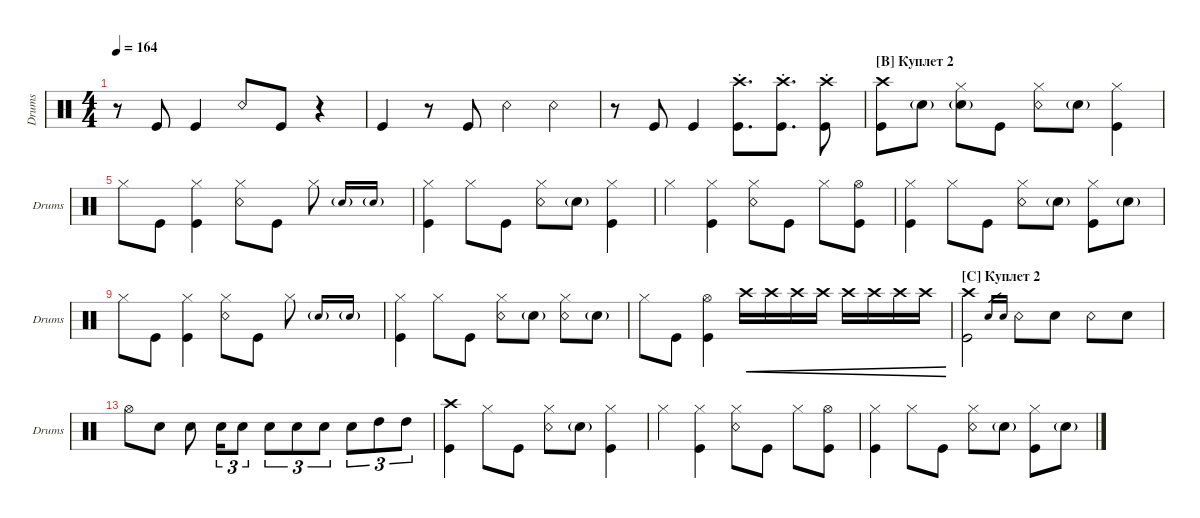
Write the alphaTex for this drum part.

\defaultSystemsLayout 4
\hideDynamics
\bracketExtendMode groupsimilarinstruments
\singleTrackTrackNamePolicy allsystems
\multiTrackTrackNamePolicy allsystems
\otherSystemsTrackNameOrientation horizontal
\defaultBarNumberDisplay FirstOfSystem
\track ("Drumkit" "Drums") {instrument percussion}
\staff {score}
\articulation defaults
\ts (4 4)
\tempo 164
\clef neutral
\ks c
r.8{dy f} "Kick (hit)".8 "Kick (hit)".4 "Snare (rim shot)".8 "Kick (hit)".8 r.4 |
"Kick (hit)".4 r.8 "Kick (hit)".8 "Snare (rim shot)".4 "Snare (rim shot)".4 |
r.8 "Kick (hit)".8 "Kick (hit)".4 ("Kick (hit)" "Crash high (hit)"{st}).8{d} ("Kick (hit)" "Crash high (hit)"{st}).8{d} ("Kick (hit)" "Crash high (hit)"{st}).8 |
\section ("B" "Куплет 2")
("Crash high (hit)" "Kick (hit)").8 "Snare (hit) 2"{g}.8 ("Hi-Hat (closed)" "Snare (hit) 2"{g}).8 "Kick (hit)".8 ("Hi-Hat (closed)" "Snare (rim shot)").8 "Snare (hit) 2"{g}.8 ("Hi-Hat (closed)" "Kick (hit)").4 |
"Hi-Hat (closed)".8 "Kick (hit)".8 ("Kick (hit)" "Hi-Hat (closed)").4 ("Snare (rim shot)" "Hi-Hat (closed)").8 "Kick (hit)".8 "Hi-Hat (closed)".8 "Snare (hit) 2"{g}.16{gr onbeat} "Snare (hit) 2"{g}.16{gr onbeat} |
("Kick (hit)" "Hi-Hat (closed)").4 "Hi-Hat (closed)".8 "Kick (hit)".8 ("Hi-Hat (closed)" "Snare (rim shot)").8 "Snare (hit) 2"{g}.8 ("Hi-Hat (closed)" "Kick (hit)").4 |
"Hi-Hat (closed)".4 ("Kick (hit)" "Hi-Hat (closed)").4 ("Snare (rim shot)" "Hi-Hat (closed)").8 "Kick (hit)".8 "Hi-Hat (closed)".8 ("Kick (hit)" "Hi-Hat (open)").8 |
("Kick (hit)" "Hi-Hat (closed)").4 "Hi-Hat (closed)".8 "Kick (hit)".8 ("Hi-Hat (closed)" "Snare (rim shot)").8 "Snare (hit) 2"{g}.8 ("Hi-Hat (closed)" "Kick (hit)").8 "Snare (hit) 2"{g}.8 |
"Hi-Hat (closed)".8 "Kick (hit)".8 ("Kick (hit)" "Hi-Hat (closed)").4 ("Snare (rim shot)" "Hi-Hat (closed)").8 "Kick (hit)".8 "Hi-Hat (closed)".8 "Snare (hit) 2"{g}.16{gr onbeat} "Snare (hit) 2"{g}.16{gr onbeat} |
("Hi-Hat (closed)" "Kick (hit)").4 "Hi-Hat (closed)".8 "Kick (hit)".8 ("Hi-Hat (closed)" "Snare (rim shot)").8 "Snare (hit) 2"{g}.8 ("Hi-Hat (closed)" "Snare (rim shot)").8 "Snare (hit) 2"{g}.8 |
"Hi-Hat (closed)".8 "Kick (hit)".8 ("Kick (hit)" "Hi-Hat (open)").4 "Crash high (hit)".16{cre} "Crash high (hit)".16{cre} "Crash high (hit)".16{cre} "Crash high (hit)".16{cre} "Crash high (hit)".16{cre} "Crash high (hit)".16{cre} "Crash high (hit)".16{cre} "Crash high (hit)".16{cre} |
\section ("C" "Куплет 2")
("Kick (hit)" "Crash high (hit)").2 "Snare (hit) 2".16{gr} "Snare (hit) 2".16{gr} "Snare (rim shot)".8 "Snare (hit) 2".8 "Snare (rim shot)".8 "Snare (hit) 2".8 |
"Hi-Hat (open)".8 "Snare (hit) 2".8 "Snare (hit) 2".8 "Snare (hit) 2".16{tu (3 2)} "Snare (hit) 2".8{tu (3 2)} "Snare (hit) 2".8{tu (3 2)} "Snare (hit) 2".8{tu (3 2)} "Snare (hit) 2".8{tu (3 2)} "Snare (hit) 2".8{tu (3 2)} "High Tom (hit)".8{tu (3 2)} "High Tom (hit)".8{tu (3 2)} |
("Kick (hit)" "Crash high (hit)").4 "Hi-Hat (closed)".8 "Kick (hit)".8 ("Hi-Hat (closed)" "Snare (rim shot)").8 "Snare (hit) 2"{g}.8 ("Hi-Hat (closed)" "Kick (hit)").4 |
"Hi-Hat (closed)".4 ("Kick (hit)" "Hi-Hat (closed)").4 ("Snare (rim shot)" "Hi-Hat (closed)").8 "Kick (hit)".8 "Hi-Hat (closed)".8 ("Kick (hit)" "Hi-Hat (open)").8 |
("Kick (hit)" "Hi-Hat (closed)").4 "Hi-Hat (closed)".8 "Kick (hit)".8 ("Hi-Hat (closed)" "Snare (rim shot)").8 "Snare (hit) 2"{g}.8 ("Hi-Hat (closed)" "Kick (hit)").8 "Snare (hit) 2"{g}.8
